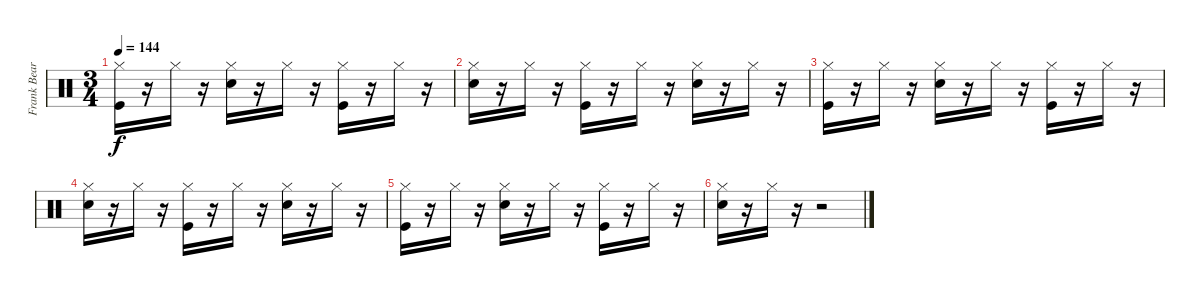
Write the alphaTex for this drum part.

\track ("Frank Beard" "Frank Bear") {instrument percussion}
\staff {score}
\articulation defaults
\ts (3 4)
\tempo 144
\clef neutral
\ks c
("Hi-Hat (closed)" "Kick (hit)").16{dy f} r.16 "Hi-Hat (closed)".16 r.16 ("Hi-Hat (closed)" "Electric Snare (hit)").16 r.16 "Hi-Hat (closed)".16 r.16 ("Hi-Hat (closed)" "Kick (hit)").16 r.16 "Hi-Hat (closed)".16 r.16 |
("Hi-Hat (closed)" "Electric Snare (hit)").16 r.16 "Hi-Hat (closed)".16 r.16 ("Hi-Hat (closed)" "Kick (hit)").16 r.16 "Hi-Hat (closed)".16 r.16 ("Hi-Hat (closed)" "Electric Snare (hit)").16 r.16 "Hi-Hat (closed)".16 r.16 |
("Hi-Hat (closed)" "Kick (hit)").16 r.16 "Hi-Hat (closed)".16 r.16 ("Hi-Hat (closed)" "Electric Snare (hit)").16 r.16 "Hi-Hat (closed)".16 r.16 ("Hi-Hat (closed)" "Kick (hit)").16 r.16 "Hi-Hat (closed)".16 r.16 |
("Hi-Hat (closed)" "Electric Snare (hit)").16 r.16 "Hi-Hat (closed)".16 r.16 ("Hi-Hat (closed)" "Kick (hit)").16 r.16 "Hi-Hat (closed)".16 r.16 ("Hi-Hat (closed)" "Electric Snare (hit)").16 r.16 "Hi-Hat (closed)".16 r.16 |
("Hi-Hat (closed)" "Kick (hit)").16 r.16 "Hi-Hat (closed)".16 r.16 ("Hi-Hat (closed)" "Electric Snare (hit)").16 r.16 "Hi-Hat (closed)".16 r.16 ("Hi-Hat (closed)" "Kick (hit)").16 r.16 "Hi-Hat (closed)".16 r.16 |
("Hi-Hat (closed)" "Electric Snare (hit)").16 r.16 "Hi-Hat (closed)".16 r.16 r.2
